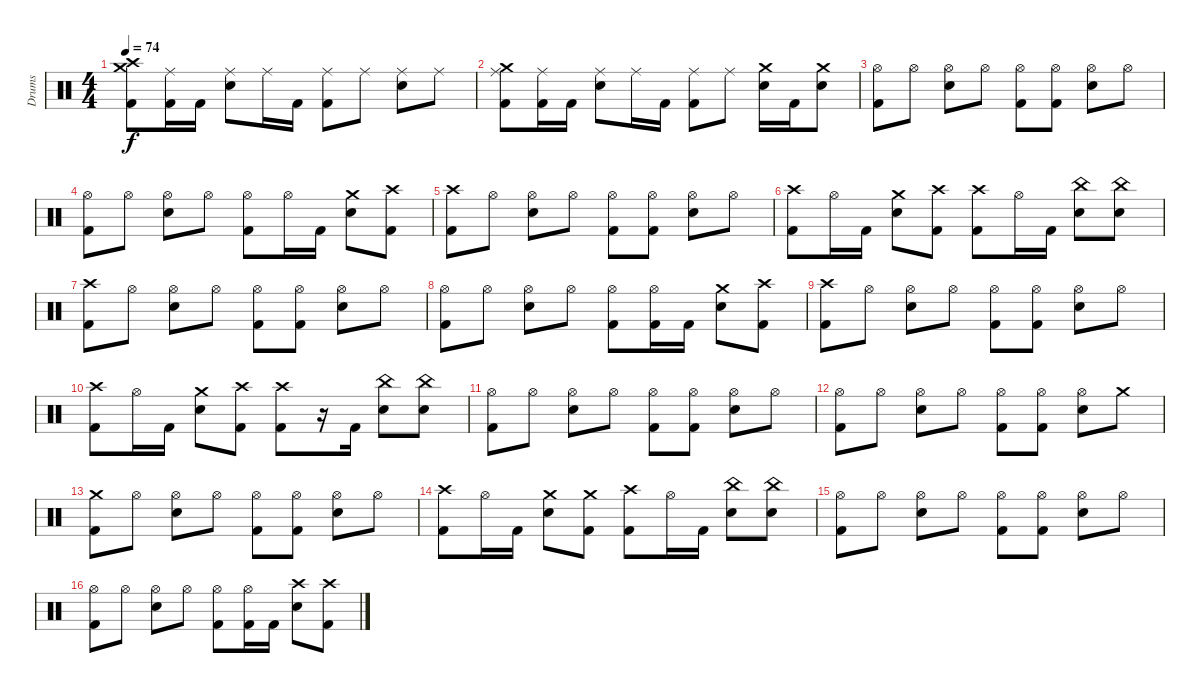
\track ("Drums" "Drums") {instrument percussion}
\staff {score}
\articulation defaults
\ts (4 4)
\tempo 74
\clef neutral
\ks c
("Crash high (hit)" "Crash medium (hit)" "Kick (hit) 2").8{dy f} ("Ride (middle)" "Kick (hit) 2").16 "Kick (hit) 2".16 ("Ride (middle)" "Snare (hit) 2").8 "Ride (middle)".16 "Kick (hit) 2".16 ("Ride (middle)" "Kick (hit) 2").8 "Ride (middle)".8 ("Ride (middle)" "Snare (hit) 2").8 "Ride (middle)".8 |
("Ride (middle)" "Crash medium (hit)" "Kick (hit) 2").8 ("Ride (middle)" "Kick (hit) 2").16 "Kick (hit) 2".16 ("Ride (middle)" "Snare (hit) 2").8 "Ride (middle)".16 "Kick (hit) 2".16 ("Ride (middle)" "Kick (hit) 2").8 "Ride (middle)".8 ("Crash medium (hit)" "Snare (hit) 2").16 "Kick (hit) 2".16 ("Crash medium (hit)" "Snare (hit) 2").8 |
("Hi-Hat (open)" "Kick (hit) 2").8 "Hi-Hat (open)".8 ("Hi-Hat (open)" "Snare (hit) 2").8 "Hi-Hat (open)".8 ("Hi-Hat (open)" "Kick (hit) 2").8 ("Hi-Hat (open)" "Kick (hit) 2").8 ("Hi-Hat (open)" "Snare (hit) 2").8 "Hi-Hat (open)".8 |
("Hi-Hat (open)" "Kick (hit) 2").8 "Hi-Hat (open)".8 ("Hi-Hat (open)" "Snare (hit) 2").8 "Hi-Hat (open)".8 ("Hi-Hat (open)" "Kick (hit) 2").8 "Hi-Hat (open)".16 "Kick (hit) 2".16 ("Crash medium (hit)" "Snare (hit) 2").8 ("Crash high (hit)" "Kick (hit) 2").8 |
("Crash high (hit)" "Kick (hit) 2").8 "Hi-Hat (open)".8 ("Hi-Hat (open)" "Snare (hit) 2").8 "Hi-Hat (open)".8 ("Hi-Hat (open)" "Kick (hit) 2").8 ("Hi-Hat (open)" "Kick (hit) 2").8 ("Hi-Hat (open)" "Snare (hit) 2").8 "Hi-Hat (open)".8 |
("Crash high (hit)" "Kick (hit) 2").8 "Hi-Hat (open)".16 "Kick (hit) 2".16 ("Crash medium (hit)" "Snare (hit) 2").8 ("Crash high (hit)" "Kick (hit) 2").8 ("Crash high (hit)" "Kick (hit) 2").8 "Hi-Hat (open)".16 "Kick (hit) 2".16 ("China (hit)" "Snare (hit) 2").8 ("China (hit)" "Snare (hit) 2").8 |
("Crash high (hit)" "Kick (hit) 2").8 "Hi-Hat (open)".8 ("Hi-Hat (open)" "Snare (hit) 2").8 "Hi-Hat (open)".8 ("Hi-Hat (open)" "Kick (hit) 2").8 ("Hi-Hat (open)" "Kick (hit) 2").8 ("Hi-Hat (open)" "Snare (hit) 2").8 "Hi-Hat (open)".8 |
("Hi-Hat (open)" "Kick (hit) 2").8 "Hi-Hat (open)".8 ("Hi-Hat (open)" "Snare (hit) 2").8 "Hi-Hat (open)".8 ("Hi-Hat (open)" "Kick (hit) 2").8 ("Hi-Hat (open)" "Kick (hit) 2").16 "Kick (hit) 2".16 ("Crash medium (hit)" "Snare (hit) 2").8 ("Crash high (hit)" "Kick (hit) 2").8 |
("Crash high (hit)" "Kick (hit) 2").8 "Hi-Hat (open)".8 ("Hi-Hat (open)" "Snare (hit) 2").8 "Hi-Hat (open)".8 ("Hi-Hat (open)" "Kick (hit) 2").8 ("Hi-Hat (open)" "Kick (hit) 2").8 ("Hi-Hat (open)" "Snare (hit) 2").8 "Hi-Hat (open)".8 |
("Crash high (hit)" "Kick (hit) 2").8 "Hi-Hat (open)".16 "Kick (hit) 2".16 ("Crash medium (hit)" "Snare (hit) 2").8 ("Crash high (hit)" "Kick (hit) 2").8 ("Crash high (hit)" "Kick (hit) 2").8 r.16 "Kick (hit) 2".16 ("China (hit)" "Snare (hit) 2").8 ("China (hit)" "Snare (hit) 2").8 |
("Hi-Hat (open)" "Kick (hit) 2").8 "Hi-Hat (open)".8 ("Hi-Hat (open)" "Snare (hit) 2").8 "Hi-Hat (open)".8 ("Hi-Hat (open)" "Kick (hit) 2").8 ("Hi-Hat (open)" "Kick (hit) 2").8 ("Hi-Hat (open)" "Snare (hit) 2").8 "Hi-Hat (open)".8 |
("Hi-Hat (open)" "Kick (hit) 2").8 "Hi-Hat (open)".8 ("Hi-Hat (open)" "Snare (hit) 2").8 "Hi-Hat (open)".8 ("Hi-Hat (open)" "Kick (hit) 2").8 ("Hi-Hat (open)" "Kick (hit) 2").8 ("Hi-Hat (open)" "Snare (hit) 2").8 "Crash medium (hit)".8 |
("Crash medium (hit)" "Kick (hit) 2").8 "Hi-Hat (open)".8 ("Hi-Hat (open)" "Snare (hit) 2").8 "Hi-Hat (open)".8 ("Hi-Hat (open)" "Kick (hit) 2").8 ("Hi-Hat (open)" "Kick (hit) 2").8 ("Hi-Hat (open)" "Snare (hit) 2").8 "Hi-Hat (open)".8 |
("Crash high (hit)" "Kick (hit) 2").8 "Hi-Hat (open)".16 "Kick (hit) 2".16 ("Crash medium (hit)" "Snare (hit) 2").8 ("Crash medium (hit)" "Kick (hit) 2").8 ("Crash high (hit)" "Kick (hit) 2").8 "Hi-Hat (open)".16 "Kick (hit) 2".16 ("China (hit)" "Snare (hit) 2").8 ("China (hit)" "Snare (hit) 2").8 |
("Hi-Hat (open)" "Kick (hit) 2").8 "Hi-Hat (open)".8 ("Hi-Hat (open)" "Snare (hit) 2").8 "Hi-Hat (open)".8 ("Hi-Hat (open)" "Kick (hit) 2").8 ("Hi-Hat (open)" "Kick (hit) 2").8 ("Hi-Hat (open)" "Snare (hit) 2").8 "Hi-Hat (open)".8 |
("Hi-Hat (open)" "Kick (hit) 2").8 "Hi-Hat (open)".8 ("Hi-Hat (open)" "Snare (hit) 2").8 "Hi-Hat (open)".8 ("Hi-Hat (open)" "Kick (hit) 2").8 ("Hi-Hat (open)" "Kick (hit) 2").16 "Kick (hit) 2".16 ("Crash high (hit)" "Snare (hit) 2").8 ("Crash high (hit)" "Kick (hit) 2").8
